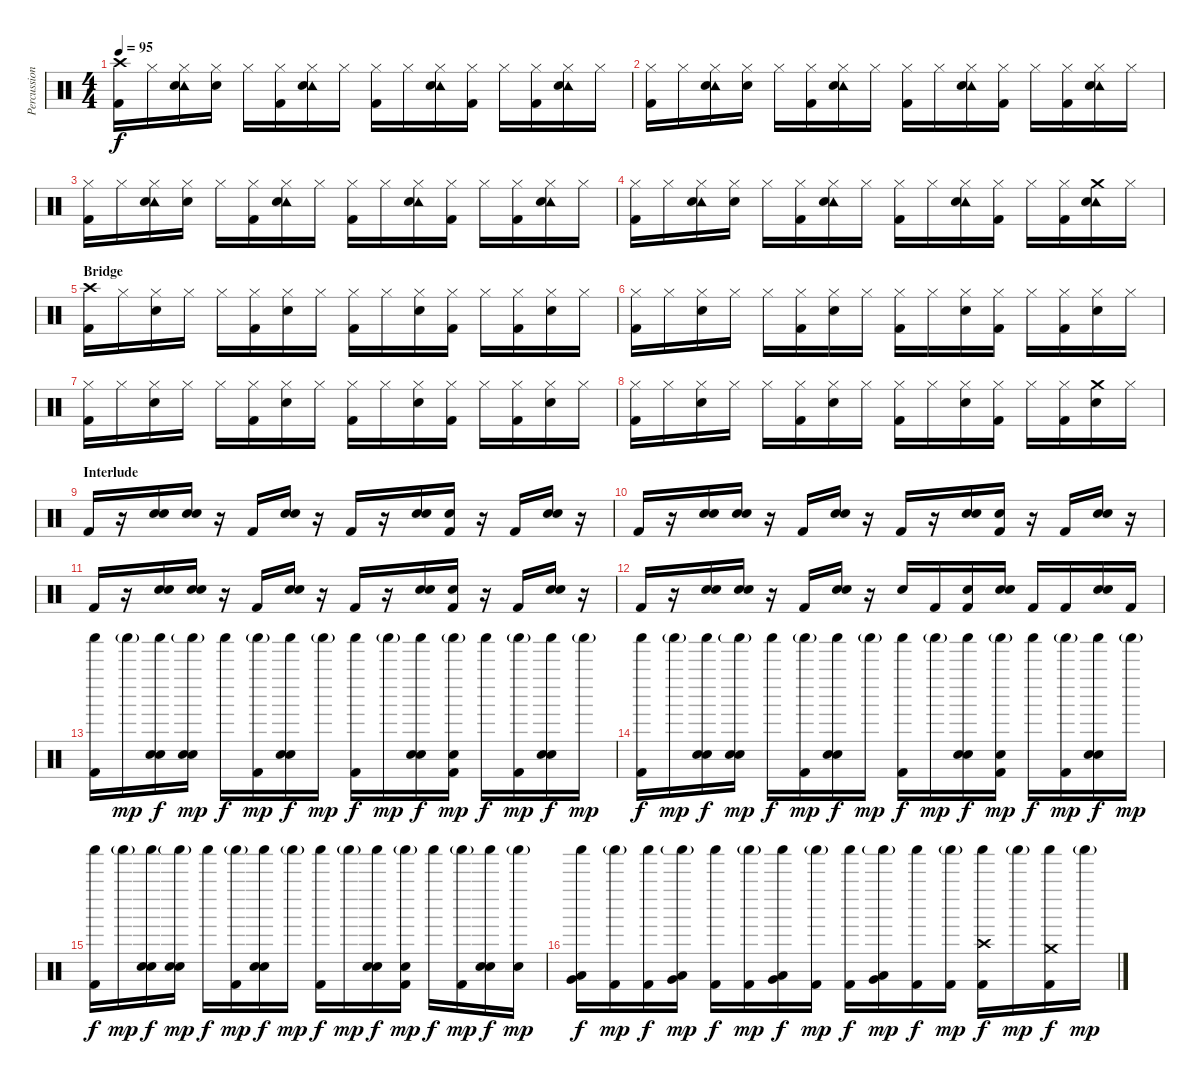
\track ("Percussion" "Percussion") {instrument percussion}
\staff {score}
\articulation defaults
\ts (4 4)
\tempo 95
\clef neutral
\ks c
("Crash high (hit)" "Kick (hit) 2").16{dy f} "Hi-Hat (closed)".16 ("Tambourine (hit)" "Hi-Hat (closed)" "Electric Snare (hit)").16 ("Hi-Hat (closed)" "Electric Snare (hit)").16 "Hi-Hat (closed)".16 ("Hi-Hat (closed)" "Kick (hit) 2").16 ("Tambourine (hit)" "Hi-Hat (closed)" "Electric Snare (hit)").16 "Hi-Hat (closed)".16 ("Hi-Hat (closed)" "Kick (hit) 2").16 "Hi-Hat (closed)".16 ("Tambourine (hit)" "Hi-Hat (closed)" "Electric Snare (hit)").16 ("Hi-Hat (closed)" "Kick (hit) 2").16 "Hi-Hat (closed)".16 ("Hi-Hat (closed)" "Kick (hit) 2").16 ("Tambourine (hit)" "Hi-Hat (closed)" "Electric Snare (hit)").16 "Hi-Hat (closed)".16 |
("Hi-Hat (closed)" "Kick (hit) 2").16 "Hi-Hat (closed)".16 ("Tambourine (hit)" "Hi-Hat (closed)" "Electric Snare (hit)").16 ("Hi-Hat (closed)" "Electric Snare (hit)").16 "Hi-Hat (closed)".16 ("Hi-Hat (closed)" "Kick (hit) 2").16 ("Tambourine (hit)" "Hi-Hat (closed)" "Electric Snare (hit)").16 "Hi-Hat (closed)".16 ("Hi-Hat (closed)" "Kick (hit) 2").16 "Hi-Hat (closed)".16 ("Tambourine (hit)" "Hi-Hat (closed)" "Electric Snare (hit)").16 ("Hi-Hat (closed)" "Kick (hit) 2").16 "Hi-Hat (closed)".16 ("Hi-Hat (closed)" "Kick (hit) 2").16 ("Tambourine (hit)" "Hi-Hat (closed)" "Electric Snare (hit)").16 "Hi-Hat (closed)".16 |
("Hi-Hat (closed)" "Kick (hit) 2").16 "Hi-Hat (closed)".16 ("Tambourine (hit)" "Hi-Hat (closed)" "Electric Snare (hit)").16 ("Hi-Hat (closed)" "Electric Snare (hit)").16 "Hi-Hat (closed)".16 ("Hi-Hat (closed)" "Kick (hit) 2").16 ("Tambourine (hit)" "Hi-Hat (closed)" "Electric Snare (hit)").16 "Hi-Hat (closed)".16 ("Hi-Hat (closed)" "Kick (hit) 2").16 "Hi-Hat (closed)".16 ("Tambourine (hit)" "Hi-Hat (closed)" "Electric Snare (hit)").16 ("Hi-Hat (closed)" "Kick (hit) 2").16 "Hi-Hat (closed)".16 ("Hi-Hat (closed)" "Kick (hit) 2").16 ("Tambourine (hit)" "Hi-Hat (closed)" "Electric Snare (hit)").16 "Hi-Hat (closed)".16 |
("Hi-Hat (closed)" "Kick (hit) 2").16 "Hi-Hat (closed)".16 ("Tambourine (hit)" "Hi-Hat (closed)" "Electric Snare (hit)").16 ("Hi-Hat (closed)" "Electric Snare (hit)").16 "Hi-Hat (closed)".16 ("Hi-Hat (closed)" "Kick (hit) 2").16 ("Tambourine (hit)" "Hi-Hat (closed)" "Electric Snare (hit)").16 "Hi-Hat (closed)".16 ("Hi-Hat (closed)" "Kick (hit) 2").16 "Hi-Hat (closed)".16 ("Tambourine (hit)" "Hi-Hat (closed)" "Electric Snare (hit)").16 ("Hi-Hat (closed)" "Kick (hit) 2").16 "Hi-Hat (closed)".16 ("Hi-Hat (closed)" "Kick (hit) 2").16 ("Tambourine (hit)" "Crash medium (hit)" "Electric Snare (hit)").16 "Hi-Hat (closed)".16 |
\section ("" "Bridge")
("Crash high (hit)" "Kick (hit) 2").16 "Hi-Hat (closed)".16 ("Hi-Hat (closed)" "Electric Snare (hit)").16 "Hi-Hat (closed)".16 "Hi-Hat (closed)".16 ("Hi-Hat (closed)" "Kick (hit) 2").16 ("Hi-Hat (closed)" "Electric Snare (hit)").16 "Hi-Hat (closed)".16 ("Hi-Hat (closed)" "Kick (hit) 2").16 "Hi-Hat (closed)".16 ("Hi-Hat (closed)" "Electric Snare (hit)").16 ("Hi-Hat (closed)" "Kick (hit) 2").16 "Hi-Hat (closed)".16 ("Hi-Hat (closed)" "Kick (hit) 2").16 ("Hi-Hat (closed)" "Electric Snare (hit)").16 "Hi-Hat (closed)".16 |
("Hi-Hat (closed)" "Kick (hit) 2").16 "Hi-Hat (closed)".16 ("Hi-Hat (closed)" "Electric Snare (hit)").16 "Hi-Hat (closed)".16 "Hi-Hat (closed)".16 ("Hi-Hat (closed)" "Kick (hit) 2").16 ("Hi-Hat (closed)" "Electric Snare (hit)").16 "Hi-Hat (closed)".16 ("Hi-Hat (closed)" "Kick (hit) 2").16 "Hi-Hat (closed)".16 ("Hi-Hat (closed)" "Electric Snare (hit)").16 ("Hi-Hat (closed)" "Kick (hit) 2").16 "Hi-Hat (closed)".16 ("Hi-Hat (closed)" "Kick (hit) 2").16 ("Hi-Hat (closed)" "Electric Snare (hit)").16 "Hi-Hat (closed)".16 |
("Hi-Hat (closed)" "Kick (hit) 2").16 "Hi-Hat (closed)".16 ("Hi-Hat (closed)" "Electric Snare (hit)").16 "Hi-Hat (closed)".16 "Hi-Hat (closed)".16 ("Hi-Hat (closed)" "Kick (hit) 2").16 ("Hi-Hat (closed)" "Electric Snare (hit)").16 "Hi-Hat (closed)".16 ("Hi-Hat (closed)" "Kick (hit) 2").16 "Hi-Hat (closed)".16 ("Hi-Hat (closed)" "Electric Snare (hit)").16 ("Hi-Hat (closed)" "Kick (hit) 2").16 "Hi-Hat (closed)".16 ("Hi-Hat (closed)" "Kick (hit) 2").16 ("Hi-Hat (closed)" "Electric Snare (hit)").16 "Hi-Hat (closed)".16 |
("Hi-Hat (closed)" "Kick (hit) 2").16 "Hi-Hat (closed)".16 ("Hi-Hat (closed)" "Electric Snare (hit)").16 "Hi-Hat (closed)".16 "Hi-Hat (closed)".16 ("Hi-Hat (closed)" "Kick (hit) 2").16 ("Hi-Hat (closed)" "Electric Snare (hit)").16 "Hi-Hat (closed)".16 ("Hi-Hat (closed)" "Kick (hit) 2").16 "Hi-Hat (closed)".16 ("Hi-Hat (closed)" "Electric Snare (hit)").16 ("Hi-Hat (closed)" "Kick (hit) 2").16 "Hi-Hat (closed)".16 ("Hi-Hat (closed)" "Kick (hit) 2").16 ("Crash medium (hit)" "Electric Snare (hit)").16 "Hi-Hat (closed)".16 |
\section ("" "Interlude")
"Kick (hit) 2".16 r.16 ("Hand Clap (hit)" "Electric Snare (hit)").16 ("Hand Clap (hit)" "Electric Snare (hit)").16 r.16 "Kick (hit) 2".16 ("Hand Clap (hit)" "Electric Snare (hit)").16 r.16 "Kick (hit) 2".16 r.16 ("Hand Clap (hit)" "Electric Snare (hit)").16 ("Hand Clap (hit)" "Kick (hit) 2").16 r.16 "Kick (hit) 2".16 ("Hand Clap (hit)" "Electric Snare (hit)").16 r.16 |
"Kick (hit) 2".16 r.16 ("Hand Clap (hit)" "Electric Snare (hit)").16 ("Hand Clap (hit)" "Electric Snare (hit)").16 r.16 "Kick (hit) 2".16 ("Hand Clap (hit)" "Electric Snare (hit)").16 r.16 "Kick (hit) 2".16 r.16 ("Hand Clap (hit)" "Electric Snare (hit)").16 ("Hand Clap (hit)" "Kick (hit) 2").16 r.16 "Kick (hit) 2".16 ("Hand Clap (hit)" "Electric Snare (hit)").16 r.16 |
"Kick (hit) 2".16 r.16 ("Hand Clap (hit)" "Electric Snare (hit)").16 ("Hand Clap (hit)" "Electric Snare (hit)").16 r.16 "Kick (hit) 2".16 ("Hand Clap (hit)" "Electric Snare (hit)").16 r.16 "Kick (hit) 2".16 r.16 ("Hand Clap (hit)" "Electric Snare (hit)").16 ("Hand Clap (hit)" "Kick (hit) 2").16 r.16 "Kick (hit) 2".16 ("Hand Clap (hit)" "Electric Snare (hit)").16 r.16 |
"Kick (hit) 2".16 r.16 ("Hand Clap (hit)" "Electric Snare (hit)").16 ("Hand Clap (hit)" "Electric Snare (hit)").16 r.16 "Kick (hit) 2".16 ("Hand Clap (hit)" "Electric Snare (hit)").16 r.16 "Electric Snare (hit)".16 "Kick (hit) 2".16 ("Hand Clap (hit)" "Kick (hit) 2").16 ("Hand Clap (hit)" "Electric Snare (hit)").16 "Kick (hit) 2".16 "Kick (hit) 2".16 ("Hand Clap (hit)" "Electric Snare (hit)").16 "Kick (hit) 2".16 |
("Shaker (hit)" "Kick (hit) 2").16 "Shaker (hit)"{g}.16{dy mp} ("Shaker (hit)" "Hand Clap (hit)" "Electric Snare (hit)").16{dy f} ("Shaker (hit)"{g} "Hand Clap (hit)" "Electric Snare (hit)").16{dy mp} "Shaker (hit)".16{dy f} ("Shaker (hit)"{g} "Kick (hit) 2").16{dy mp} ("Shaker (hit)" "Hand Clap (hit)" "Electric Snare (hit)").16{dy f} "Shaker (hit)"{g}.16{dy mp} ("Shaker (hit)" "Kick (hit) 2").16{dy f} "Shaker (hit)"{g}.16{dy mp} ("Shaker (hit)" "Hand Clap (hit)" "Electric Snare (hit)").16{dy f} ("Shaker (hit)"{g} "Hand Clap (hit)" "Kick (hit) 2").16{dy mp} "Shaker (hit)".16{dy f} ("Shaker (hit)"{g} "Kick (hit) 2").16{dy mp} ("Shaker (hit)" "Hand Clap (hit)" "Electric Snare (hit)").16{dy f} "Shaker (hit)"{g}.16{dy mp} |
("Shaker (hit)" "Kick (hit) 2").16{dy f} "Shaker (hit)"{g}.16{dy mp} ("Shaker (hit)" "Hand Clap (hit)" "Electric Snare (hit)").16{dy f} ("Shaker (hit)"{g} "Hand Clap (hit)" "Electric Snare (hit)").16{dy mp} "Shaker (hit)".16{dy f} ("Shaker (hit)"{g} "Kick (hit) 2").16{dy mp} ("Shaker (hit)" "Hand Clap (hit)" "Electric Snare (hit)").16{dy f} "Shaker (hit)"{g}.16{dy mp} ("Shaker (hit)" "Kick (hit) 2").16{dy f} "Shaker (hit)"{g}.16{dy mp} ("Shaker (hit)" "Hand Clap (hit)" "Electric Snare (hit)").16{dy f} ("Shaker (hit)"{g} "Hand Clap (hit)" "Kick (hit) 2").16{dy mp} "Shaker (hit)".16{dy f} ("Shaker (hit)"{g} "Kick (hit) 2").16{dy mp} ("Shaker (hit)" "Hand Clap (hit)" "Electric Snare (hit)").16{dy f} "Shaker (hit)"{g}.16{dy mp} |
("Shaker (hit)" "Kick (hit) 2").16{dy f} "Shaker (hit)"{g}.16{dy mp} ("Shaker (hit)" "Hand Clap (hit)" "Electric Snare (hit)").16{dy f} ("Shaker (hit)"{g} "Hand Clap (hit)" "Electric Snare (hit)").16{dy mp} "Shaker (hit)".16{dy f} ("Shaker (hit)"{g} "Kick (hit) 2").16{dy mp} ("Shaker (hit)" "Hand Clap (hit)" "Electric Snare (hit)").16{dy f} "Shaker (hit)"{g}.16{dy mp} ("Shaker (hit)" "Kick (hit) 2").16{dy f} "Shaker (hit)"{g}.16{dy mp} ("Shaker (hit)" "Hand Clap (hit)" "Electric Snare (hit)").16{dy f} ("Shaker (hit)"{g} "Hand Clap (hit)" "Kick (hit) 2").16{dy mp} "Shaker (hit)".16{dy f} ("Shaker (hit)"{g} "Kick (hit) 2").16{dy mp} ("Shaker (hit)" "Hand Clap (hit)" "Electric Snare (hit)").16{dy f} ("Shaker (hit)"{g} "Snare (hit)").16{dy mp} |
("Shaker (hit)" "Low Tom (hit)" "Very Low Tom (hit)").16{dy f} ("Shaker (hit)"{g} "Kick (hit) 2").16{dy mp} ("Shaker (hit)" "Kick (hit) 2").16{dy f} ("Shaker (hit)"{g} "Low Tom (hit)" "Very Low Tom (hit)").16{dy mp} ("Shaker (hit)" "Kick (hit) 2").16{dy f} ("Shaker (hit)"{g} "Kick (hit) 2").16{dy mp} ("Shaker (hit)" "Low Tom (hit)" "Very Low Tom (hit)").16{dy f} ("Shaker (hit)"{g} "Kick (hit) 2").16{dy mp} ("Shaker (hit)" "Kick (hit) 2").16{dy f} ("Shaker (hit)"{g} "Low Tom (hit)" "Very Low Tom (hit)").16{dy mp} ("Shaker (hit)" "Kick (hit) 2").16{dy f} ("Shaker (hit)"{g} "Kick (hit) 2").16{dy mp} ("Shaker (hit)" "Crash high (hit)" "Kick (hit) 2").16{dy f} "Shaker (hit)"{g}.16{dy mp} ("Shaker (hit)" "Crash medium (hit)" "Kick (hit) 2").16{dy f} "Shaker (hit)"{g}.16{dy mp}
